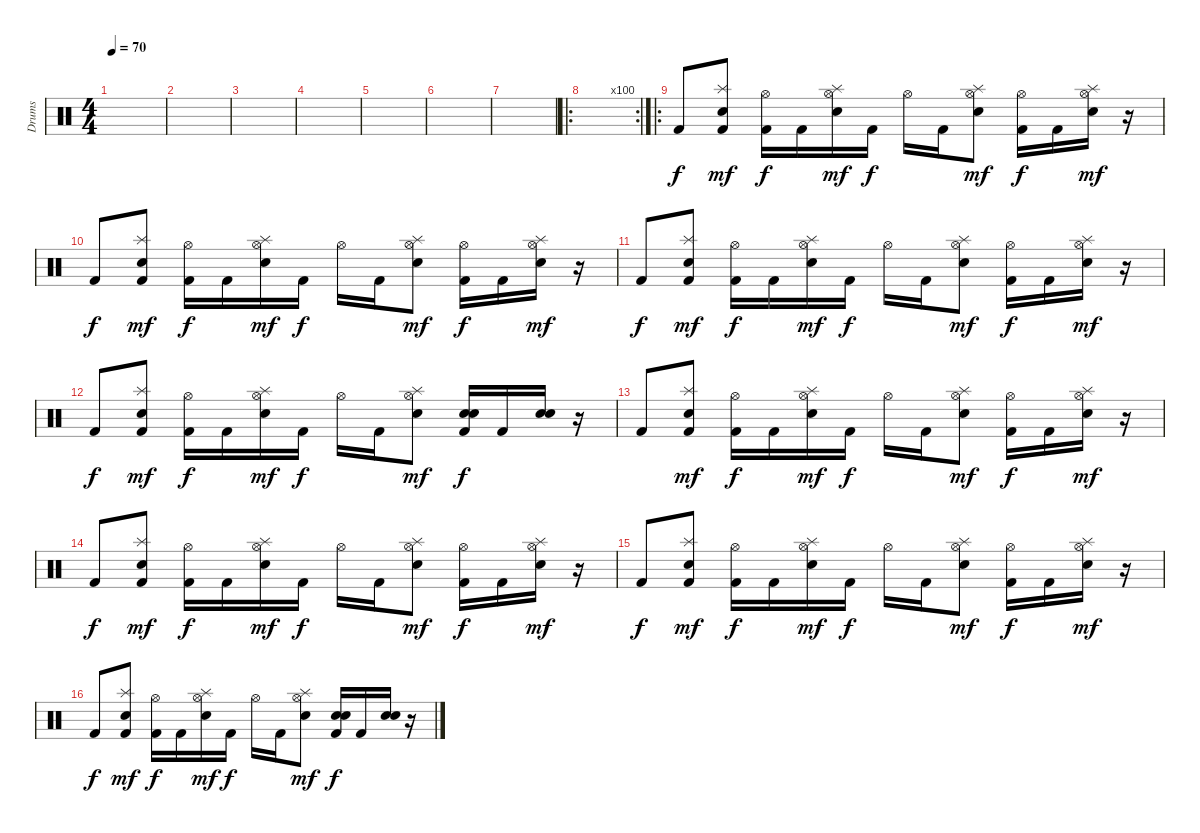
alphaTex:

\track ("Drums" "Drums") {instrument percussion}
\staff {score}
\articulation defaults
\ts (4 4)
\tempo 70
\clef neutral
\ks c
|
|
|
|
|
|
|
\ro
\rc 100
|
\ro "Kick (hit) 2".8{dy f}
("Splash (hit)" "Snare (hit) 2" "Kick (hit) 2").8{dy mf} ("Hi-Hat (open)" "Kick (hit) 2").16{dy f} "Kick (hit) 2".16 ("Hi-Hat (open)" "Splash (hit)" "Snare (hit) 2").16{dy mf} "Kick (hit) 2".16{dy f} "Hi-Hat (open)".16 "Kick (hit) 2".16 ("Hi-Hat (open)" "Splash (hit)" "Snare (hit) 2").8{dy mf} ("Hi-Hat (open)" "Kick (hit) 2").16{dy f} "Kick (hit) 2".16 ("Hi-Hat (open)" "Splash (hit)" "Snare (hit) 2").16{dy mf} r.16 |
"Kick (hit) 2".8{dy f} ("Splash (hit)" "Snare (hit) 2" "Kick (hit) 2").8{dy mf} ("Hi-Hat (open)" "Kick (hit) 2").16{dy f} "Kick (hit) 2".16 ("Hi-Hat (open)" "Splash (hit)" "Snare (hit) 2").16{dy mf} "Kick (hit) 2".16{dy f} "Hi-Hat (open)".16 "Kick (hit) 2".16 ("Hi-Hat (open)" "Splash (hit)" "Snare (hit) 2").8{dy mf} ("Hi-Hat (open)" "Kick (hit) 2").16{dy f} "Kick (hit) 2".16 ("Hi-Hat (open)" "Splash (hit)" "Snare (hit) 2").16{dy mf} r.16 |
"Kick (hit) 2".8{dy f} ("Splash (hit)" "Snare (hit) 2" "Kick (hit) 2").8{dy mf} ("Hi-Hat (open)" "Kick (hit) 2").16{dy f} "Kick (hit) 2".16 ("Hi-Hat (open)" "Splash (hit)" "Snare (hit) 2").16{dy mf} "Kick (hit) 2".16{dy f} "Hi-Hat (open)".16 "Kick (hit) 2".16 ("Hi-Hat (open)" "Splash (hit)" "Snare (hit) 2").8{dy mf} ("Hi-Hat (open)" "Kick (hit) 2").16{dy f} "Kick (hit) 2".16 ("Hi-Hat (open)" "Splash (hit)" "Snare (hit) 2").16{dy mf} r.16 |
"Kick (hit) 2".8{dy f} ("Splash (hit)" "Snare (hit) 2" "Kick (hit) 2").8{dy mf} ("Hi-Hat (open)" "Kick (hit) 2").16{dy f} "Kick (hit) 2".16 ("Hi-Hat (open)" "Splash (hit)" "Snare (hit) 2").16{dy mf} "Kick (hit) 2".16{dy f} "Hi-Hat (open)".16 "Kick (hit) 2".16 ("Hi-Hat (open)" "Splash (hit)" "Snare (hit) 2").8{dy mf} ("Electric Snare (hit)" "Snare (hit) 2" "Kick (hit) 2").16{dy f} "Kick (hit) 2".16 ("Electric Snare (hit)" "Snare (hit) 2").16 r.16 |
"Kick (hit) 2".8 ("Splash (hit)" "Snare (hit) 2" "Kick (hit) 2").8{dy mf} ("Hi-Hat (open)" "Kick (hit) 2").16{dy f} "Kick (hit) 2".16 ("Hi-Hat (open)" "Splash (hit)" "Snare (hit) 2").16{dy mf} "Kick (hit) 2".16{dy f} "Hi-Hat (open)".16 "Kick (hit) 2".16 ("Hi-Hat (open)" "Splash (hit)" "Snare (hit) 2").8{dy mf} ("Hi-Hat (open)" "Kick (hit) 2").16{dy f} "Kick (hit) 2".16 ("Hi-Hat (open)" "Splash (hit)" "Snare (hit) 2").16{dy mf} r.16 |
"Kick (hit) 2".8{dy f} ("Splash (hit)" "Snare (hit) 2" "Kick (hit) 2").8{dy mf} ("Hi-Hat (open)" "Kick (hit) 2").16{dy f} "Kick (hit) 2".16 ("Hi-Hat (open)" "Splash (hit)" "Snare (hit) 2").16{dy mf} "Kick (hit) 2".16{dy f} "Hi-Hat (open)".16 "Kick (hit) 2".16 ("Hi-Hat (open)" "Splash (hit)" "Snare (hit) 2").8{dy mf} ("Hi-Hat (open)" "Kick (hit) 2").16{dy f} "Kick (hit) 2".16 ("Hi-Hat (open)" "Splash (hit)" "Snare (hit) 2").16{dy mf} r.16 |
"Kick (hit) 2".8{dy f} ("Splash (hit)" "Snare (hit) 2" "Kick (hit) 2").8{dy mf} ("Hi-Hat (open)" "Kick (hit) 2").16{dy f} "Kick (hit) 2".16 ("Hi-Hat (open)" "Splash (hit)" "Snare (hit) 2").16{dy mf} "Kick (hit) 2".16{dy f} "Hi-Hat (open)".16 "Kick (hit) 2".16 ("Hi-Hat (open)" "Splash (hit)" "Snare (hit) 2").8{dy mf} ("Hi-Hat (open)" "Kick (hit) 2").16{dy f} "Kick (hit) 2".16 ("Hi-Hat (open)" "Splash (hit)" "Snare (hit) 2").16{dy mf} r.16 |
"Kick (hit) 2".8{dy f} ("Splash (hit)" "Snare (hit) 2" "Kick (hit) 2").8{dy mf} ("Hi-Hat (open)" "Kick (hit) 2").16{dy f} "Kick (hit) 2".16 ("Hi-Hat (open)" "Splash (hit)" "Snare (hit) 2").16{dy mf} "Kick (hit) 2".16{dy f} "Hi-Hat (open)".16 "Kick (hit) 2".16 ("Hi-Hat (open)" "Splash (hit)" "Snare (hit) 2").8{dy mf} ("Electric Snare (hit)" "Snare (hit) 2" "Kick (hit) 2").16{dy f} "Kick (hit) 2".16 ("Electric Snare (hit)" "Snare (hit) 2").16 r.16
